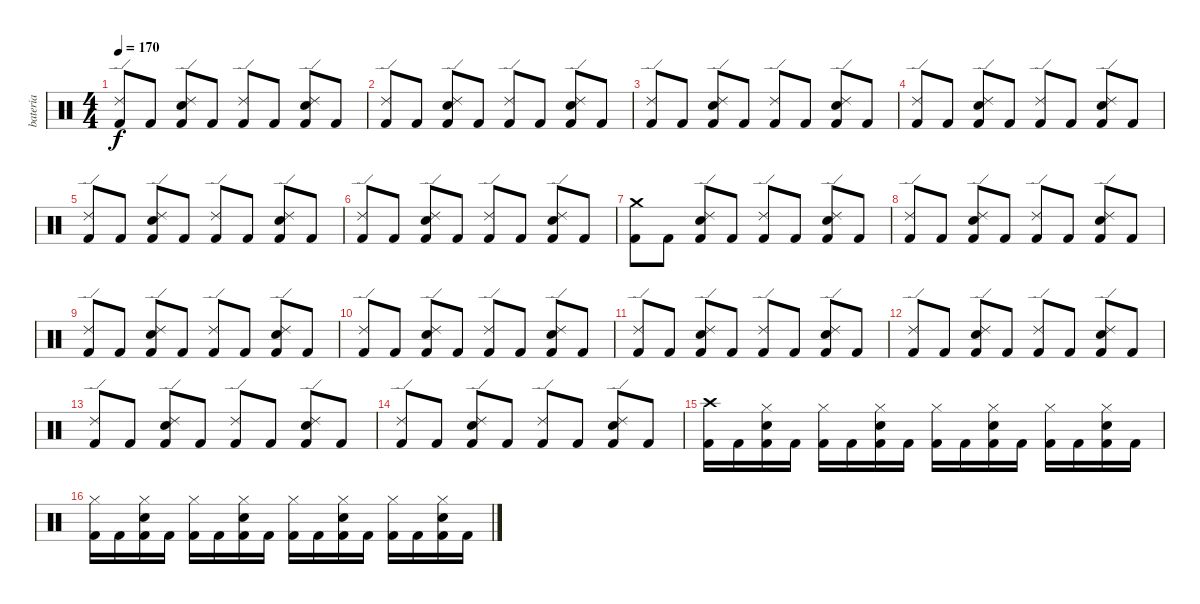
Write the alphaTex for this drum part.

\track ("bateria" "bateria") {instrument percussion}
\staff {score}
\articulation defaults
\ts (4 4)
\tempo 170
\clef neutral
\ks c
("Ride (edge) 2" "Kick (hit) 2").8{dy f} "Kick (hit) 2".8 ("Ride (edge) 2" "Snare (hit) 2" "Kick (hit) 2").8 "Kick (hit) 2".8 ("Ride (edge) 2" "Kick (hit) 2").8 "Kick (hit) 2".8 ("Ride (edge) 2" "Snare (hit) 2" "Kick (hit) 2").8 "Kick (hit) 2".8 |
("Ride (edge) 2" "Kick (hit) 2").8 "Kick (hit) 2".8 ("Ride (edge) 2" "Snare (hit) 2" "Kick (hit) 2").8 "Kick (hit) 2".8 ("Ride (edge) 2" "Kick (hit) 2").8 "Kick (hit) 2".8 ("Ride (edge) 2" "Snare (hit) 2" "Kick (hit) 2").8 "Kick (hit) 2".8 |
("Ride (edge) 2" "Kick (hit) 2").8 "Kick (hit) 2".8 ("Ride (edge) 2" "Snare (hit) 2" "Kick (hit) 2").8 "Kick (hit) 2".8 ("Ride (edge) 2" "Kick (hit) 2").8 "Kick (hit) 2".8 ("Ride (edge) 2" "Snare (hit) 2" "Kick (hit) 2").8 "Kick (hit) 2".8 |
("Ride (edge) 2" "Kick (hit) 2").8 "Kick (hit) 2".8 ("Ride (edge) 2" "Snare (hit) 2" "Kick (hit) 2").8 "Kick (hit) 2".8 ("Ride (edge) 2" "Kick (hit) 2").8 "Kick (hit) 2".8 ("Ride (edge) 2" "Snare (hit) 2" "Kick (hit) 2").8 "Kick (hit) 2".8 |
("Ride (edge) 2" "Kick (hit) 2").8 "Kick (hit) 2".8 ("Ride (edge) 2" "Snare (hit) 2" "Kick (hit) 2").8 "Kick (hit) 2".8 ("Ride (edge) 2" "Kick (hit) 2").8 "Kick (hit) 2".8 ("Ride (edge) 2" "Snare (hit) 2" "Kick (hit) 2").8 "Kick (hit) 2".8 |
("Ride (edge) 2" "Kick (hit) 2").8 "Kick (hit) 2".8 ("Ride (edge) 2" "Snare (hit) 2" "Kick (hit) 2").8 "Kick (hit) 2".8 ("Ride (edge) 2" "Kick (hit) 2").8 "Kick (hit) 2".8 ("Ride (edge) 2" "Snare (hit) 2" "Kick (hit) 2").8 "Kick (hit) 2".8 |
("Crash medium (hit)" "Kick (hit) 2").8 "Kick (hit) 2".8 ("Ride (edge) 2" "Snare (hit) 2" "Kick (hit) 2").8 "Kick (hit) 2".8 ("Ride (edge) 2" "Kick (hit) 2").8 "Kick (hit) 2".8 ("Ride (edge) 2" "Snare (hit) 2" "Kick (hit) 2").8 "Kick (hit) 2".8 |
("Ride (edge) 2" "Kick (hit) 2").8 "Kick (hit) 2".8 ("Ride (edge) 2" "Snare (hit) 2" "Kick (hit) 2").8 "Kick (hit) 2".8 ("Ride (edge) 2" "Kick (hit) 2").8 "Kick (hit) 2".8 ("Ride (edge) 2" "Snare (hit) 2" "Kick (hit) 2").8 "Kick (hit) 2".8 |
("Ride (edge) 2" "Kick (hit) 2").8 "Kick (hit) 2".8 ("Ride (edge) 2" "Snare (hit) 2" "Kick (hit) 2").8 "Kick (hit) 2".8 ("Ride (edge) 2" "Kick (hit) 2").8 "Kick (hit) 2".8 ("Ride (edge) 2" "Snare (hit) 2" "Kick (hit) 2").8 "Kick (hit) 2".8 |
("Ride (edge) 2" "Kick (hit) 2").8 "Kick (hit) 2".8 ("Ride (edge) 2" "Snare (hit) 2" "Kick (hit) 2").8 "Kick (hit) 2".8 ("Ride (edge) 2" "Kick (hit) 2").8 "Kick (hit) 2".8 ("Ride (edge) 2" "Snare (hit) 2" "Kick (hit) 2").8 "Kick (hit) 2".8 |
("Ride (edge) 2" "Kick (hit) 2").8 "Kick (hit) 2".8 ("Ride (edge) 2" "Snare (hit) 2" "Kick (hit) 2").8 "Kick (hit) 2".8 ("Ride (edge) 2" "Kick (hit) 2").8 "Kick (hit) 2".8 ("Ride (edge) 2" "Snare (hit) 2" "Kick (hit) 2").8 "Kick (hit) 2".8 |
("Ride (edge) 2" "Kick (hit) 2").8 "Kick (hit) 2".8 ("Ride (edge) 2" "Snare (hit) 2" "Kick (hit) 2").8 "Kick (hit) 2".8 ("Ride (edge) 2" "Kick (hit) 2").8 "Kick (hit) 2".8 ("Ride (edge) 2" "Snare (hit) 2" "Kick (hit) 2").8 "Kick (hit) 2".8 |
("Ride (edge) 2" "Kick (hit) 2").8 "Kick (hit) 2".8 ("Ride (edge) 2" "Snare (hit) 2" "Kick (hit) 2").8 "Kick (hit) 2".8 ("Ride (edge) 2" "Kick (hit) 2").8 "Kick (hit) 2".8 ("Ride (edge) 2" "Snare (hit) 2" "Kick (hit) 2").8 "Kick (hit) 2".8 |
("Ride (edge) 2" "Kick (hit) 2").8 "Kick (hit) 2".8 ("Ride (edge) 2" "Snare (hit) 2" "Kick (hit) 2").8 "Kick (hit) 2".8 ("Ride (edge) 2" "Kick (hit) 2").8 "Kick (hit) 2".8 ("Ride (edge) 2" "Snare (hit) 2" "Kick (hit) 2").8 "Kick (hit) 2".8 |
("Crash high (hit)" "Kick (hit) 2").16 "Kick (hit) 2".16 ("Hi-Hat (closed)" "Snare (hit) 2" "Kick (hit) 2").16 "Kick (hit) 2".16 ("Hi-Hat (closed)" "Kick (hit) 2").16 "Kick (hit) 2".16 ("Hi-Hat (closed)" "Snare (hit) 2" "Kick (hit) 2").16 "Kick (hit) 2".16 ("Hi-Hat (closed)" "Kick (hit) 2").16 "Kick (hit) 2".16 ("Hi-Hat (closed)" "Snare (hit) 2" "Kick (hit) 2").16 "Kick (hit) 2".16 ("Hi-Hat (closed)" "Kick (hit) 2").16 "Kick (hit) 2".16 ("Hi-Hat (closed)" "Snare (hit) 2" "Kick (hit) 2").16 "Kick (hit) 2".16 |
("Hi-Hat (closed)" "Kick (hit) 2").16 "Kick (hit) 2".16 ("Hi-Hat (closed)" "Snare (hit) 2" "Kick (hit) 2").16 "Kick (hit) 2".16 ("Hi-Hat (closed)" "Kick (hit) 2").16 "Kick (hit) 2".16 ("Hi-Hat (closed)" "Snare (hit) 2" "Kick (hit) 2").16 "Kick (hit) 2".16 ("Hi-Hat (closed)" "Kick (hit) 2").16 "Kick (hit) 2".16 ("Hi-Hat (closed)" "Snare (hit) 2" "Kick (hit) 2").16 "Kick (hit) 2".16 ("Hi-Hat (closed)" "Kick (hit) 2").16 "Kick (hit) 2".16 ("Hi-Hat (closed)" "Snare (hit) 2" "Kick (hit) 2").16 "Kick (hit) 2".16
